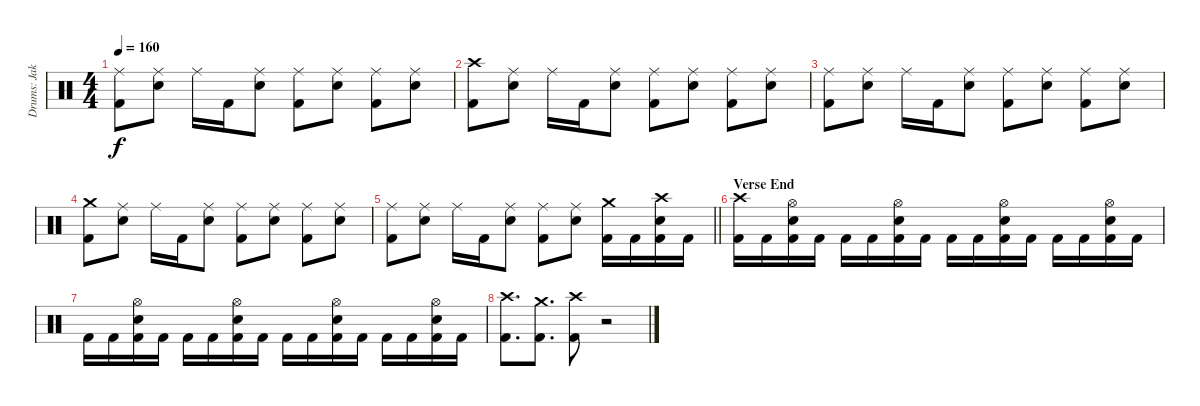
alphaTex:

\track ("Drums: Jake" "Drums: Jak") {instrument percussion}
\staff {score}
\articulation defaults
\ts (4 4)
\tempo 160
\clef neutral
\ks c
("Ride (middle)" "Kick (hit) 2").8{dy f} ("Ride (middle)" "Snare (hit) 2").8 "Ride (middle)".16 "Kick (hit) 2".16 ("Ride (middle)" "Snare (hit) 2").8 ("Ride (middle)" "Kick (hit) 2").8 ("Ride (middle)" "Snare (hit) 2").8 ("Ride (middle)" "Kick (hit) 2").8 ("Ride (middle)" "Snare (hit) 2").8 |
("Crash high (hit)" "Kick (hit) 2").8 ("Ride (middle)" "Snare (hit) 2").8 "Ride (middle)".16 "Kick (hit) 2".16 ("Ride (middle)" "Snare (hit) 2").8 ("Ride (middle)" "Kick (hit) 2").8 ("Ride (middle)" "Snare (hit) 2").8 ("Ride (middle)" "Kick (hit) 2").8 ("Ride (middle)" "Snare (hit) 2").8 |
("Ride (middle)" "Kick (hit) 2").8 ("Ride (middle)" "Snare (hit) 2").8 "Ride (middle)".16 "Kick (hit) 2".16 ("Ride (middle)" "Snare (hit) 2").8 ("Ride (middle)" "Kick (hit) 2").8 ("Ride (middle)" "Snare (hit) 2").8 ("Ride (middle)" "Kick (hit) 2").8 ("Ride (middle)" "Snare (hit) 2").8 |
("Crash medium (hit)" "Kick (hit) 2").8 ("Ride (middle)" "Snare (hit) 2").8 "Ride (middle)".16 "Kick (hit) 2".16 ("Ride (middle)" "Snare (hit) 2").8 ("Ride (middle)" "Kick (hit) 2").8 ("Ride (middle)" "Snare (hit) 2").8 ("Ride (middle)" "Kick (hit) 2").8 ("Ride (middle)" "Snare (hit) 2").8 |
\barLineRight lightlight
("Ride (middle)" "Kick (hit) 2").8 ("Ride (middle)" "Snare (hit) 2").8 "Ride (middle)".16 "Kick (hit) 2".16 ("Ride (middle)" "Snare (hit) 2").8 ("Ride (middle)" "Kick (hit) 2").8 ("Ride (middle)" "Snare (hit) 2").8 ("Crash medium (hit)" "Kick (hit) 2").16 "Kick (hit) 2".16 ("Crash high (hit)" "Snare (hit) 2" "Kick (hit) 2").16 "Kick (hit) 2".16 |
\section ("" "Verse End")
("Crash high (hit)" "Kick (hit) 2").16 "Kick (hit) 2".16 ("Hi-Hat (open)" "Snare (hit) 2" "Kick (hit) 2").16 "Kick (hit) 2".16 "Kick (hit) 2".16 "Kick (hit) 2".16 ("Hi-Hat (open)" "Snare (hit) 2" "Kick (hit) 2").16 "Kick (hit) 2".16 "Kick (hit) 2".16 "Kick (hit) 2".16 ("Hi-Hat (open)" "Snare (hit) 2" "Kick (hit) 2").16 "Kick (hit) 2".16 "Kick (hit) 2".16 "Kick (hit) 2".16 ("Hi-Hat (open)" "Snare (hit) 2" "Kick (hit) 2").16 "Kick (hit) 2".16 |
"Kick (hit) 2".16 "Kick (hit) 2".16 ("Hi-Hat (open)" "Snare (hit) 2" "Kick (hit) 2").16 "Kick (hit) 2".16 "Kick (hit) 2".16 "Kick (hit) 2".16 ("Hi-Hat (open)" "Snare (hit) 2" "Kick (hit) 2").16 "Kick (hit) 2".16 "Kick (hit) 2".16 "Kick (hit) 2".16 ("Hi-Hat (open)" "Snare (hit) 2" "Kick (hit) 2").16 "Kick (hit) 2".16 "Kick (hit) 2".16 "Kick (hit) 2".16 ("Hi-Hat (open)" "Snare (hit) 2" "Kick (hit) 2").16 "Kick (hit) 2".16 |
("Crash high (hit)" "Kick (hit) 2").8{d} ("Crash medium (hit)" "Kick (hit) 2").8{d} ("Crash high (hit)" "Kick (hit) 2").8 r.2
